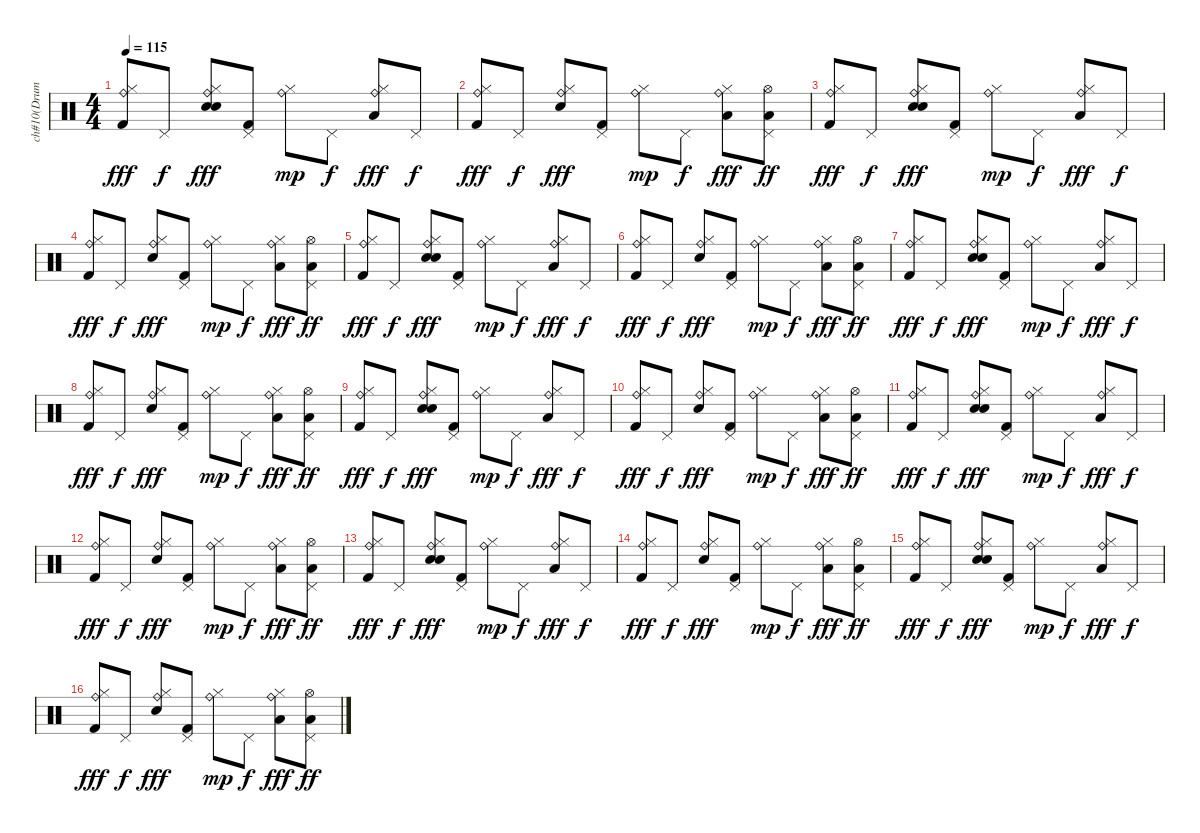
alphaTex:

\track ("ch#10(Drums)" "ch#10(Drum") {instrument percussion}
\staff {score}
\articulation defaults
\ts (4 4)
\tempo 115
\clef neutral
\ks c
("Ride (bell)" "Hi-Hat (closed)" "Kick (hit) 2").8{dy fff} "Pedal Hi-Hat (hit)".8{dy f} ("Electric Snare (hit)" "Ride (bell)" "Hi-Hat (closed)" "Electric Snare (hit)").8{dy fff} ("Kick (hit) 2" "Pedal Hi-Hat (hit)").8 ("Ride (bell)" "Hi-Hat (closed)").8{dy mp} "Pedal Hi-Hat (hit)".8{dy f} ("Ride (bell)" "Low Floor Tom (hit)" "Hi-Hat (closed)").8{dy fff} "Pedal Hi-Hat (hit)".8{dy f} |
("Ride (bell)" "Hi-Hat (closed)" "Kick (hit) 2").8{dy fff} "Pedal Hi-Hat (hit)".8{dy f} ("Ride (bell)" "Hi-Hat (closed)" "Electric Snare (hit)").8{dy fff} ("Pedal Hi-Hat (hit)" "Kick (hit) 2").8 ("Ride (bell)" "Hi-Hat (closed)").8{dy mp} "Pedal Hi-Hat (hit)".8{dy f} ("Ride (bell)" "Low Floor Tom (hit)" "Hi-Hat (closed)").8{dy fff} ("Hi-Hat (open)" "Low Floor Tom (hit)" "Pedal Hi-Hat (hit)").8{dy ff} |
("Ride (bell)" "Hi-Hat (closed)" "Kick (hit) 2").8{dy fff} "Pedal Hi-Hat (hit)".8{dy f} ("Electric Snare (hit)" "Ride (bell)" "Hi-Hat (closed)" "Electric Snare (hit)").8{dy fff} ("Kick (hit) 2" "Pedal Hi-Hat (hit)").8 ("Ride (bell)" "Hi-Hat (closed)").8{dy mp} "Pedal Hi-Hat (hit)".8{dy f} ("Ride (bell)" "Low Floor Tom (hit)" "Hi-Hat (closed)").8{dy fff} "Pedal Hi-Hat (hit)".8{dy f} |
("Ride (bell)" "Hi-Hat (closed)" "Kick (hit) 2").8{dy fff} "Pedal Hi-Hat (hit)".8{dy f} ("Ride (bell)" "Hi-Hat (closed)" "Electric Snare (hit)").8{dy fff} ("Pedal Hi-Hat (hit)" "Kick (hit) 2").8 ("Ride (bell)" "Hi-Hat (closed)").8{dy mp} "Pedal Hi-Hat (hit)".8{dy f} ("Ride (bell)" "Low Floor Tom (hit)" "Hi-Hat (closed)").8{dy fff} ("Hi-Hat (open)" "Low Floor Tom (hit)" "Pedal Hi-Hat (hit)").8{dy ff} |
("Ride (bell)" "Hi-Hat (closed)" "Kick (hit) 2").8{dy fff} "Pedal Hi-Hat (hit)".8{dy f} ("Electric Snare (hit)" "Ride (bell)" "Hi-Hat (closed)" "Electric Snare (hit)").8{dy fff} ("Kick (hit) 2" "Pedal Hi-Hat (hit)").8 ("Ride (bell)" "Hi-Hat (closed)").8{dy mp} "Pedal Hi-Hat (hit)".8{dy f} ("Ride (bell)" "Low Floor Tom (hit)" "Hi-Hat (closed)").8{dy fff} "Pedal Hi-Hat (hit)".8{dy f} |
("Ride (bell)" "Hi-Hat (closed)" "Kick (hit) 2").8{dy fff} "Pedal Hi-Hat (hit)".8{dy f} ("Ride (bell)" "Hi-Hat (closed)" "Electric Snare (hit)").8{dy fff} ("Pedal Hi-Hat (hit)" "Kick (hit) 2").8 ("Ride (bell)" "Hi-Hat (closed)").8{dy mp} "Pedal Hi-Hat (hit)".8{dy f} ("Ride (bell)" "Low Floor Tom (hit)" "Hi-Hat (closed)").8{dy fff} ("Hi-Hat (open)" "Low Floor Tom (hit)" "Pedal Hi-Hat (hit)").8{dy ff} |
("Ride (bell)" "Hi-Hat (closed)" "Kick (hit) 2").8{dy fff} "Pedal Hi-Hat (hit)".8{dy f} ("Electric Snare (hit)" "Ride (bell)" "Hi-Hat (closed)" "Electric Snare (hit)").8{dy fff} ("Kick (hit) 2" "Pedal Hi-Hat (hit)").8 ("Ride (bell)" "Hi-Hat (closed)").8{dy mp} "Pedal Hi-Hat (hit)".8{dy f} ("Ride (bell)" "Low Floor Tom (hit)" "Hi-Hat (closed)").8{dy fff} "Pedal Hi-Hat (hit)".8{dy f} |
("Ride (bell)" "Hi-Hat (closed)" "Kick (hit) 2").8{dy fff} "Pedal Hi-Hat (hit)".8{dy f} ("Ride (bell)" "Hi-Hat (closed)" "Electric Snare (hit)").8{dy fff} ("Pedal Hi-Hat (hit)" "Kick (hit) 2").8 ("Ride (bell)" "Hi-Hat (closed)").8{dy mp} "Pedal Hi-Hat (hit)".8{dy f} ("Ride (bell)" "Low Floor Tom (hit)" "Hi-Hat (closed)").8{dy fff} ("Hi-Hat (open)" "Low Floor Tom (hit)" "Pedal Hi-Hat (hit)").8{dy ff} |
("Ride (bell)" "Hi-Hat (closed)" "Kick (hit) 2").8{dy fff} "Pedal Hi-Hat (hit)".8{dy f} ("Electric Snare (hit)" "Ride (bell)" "Hi-Hat (closed)" "Electric Snare (hit)").8{dy fff} ("Kick (hit) 2" "Pedal Hi-Hat (hit)").8 ("Ride (bell)" "Hi-Hat (closed)").8{dy mp} "Pedal Hi-Hat (hit)".8{dy f} ("Ride (bell)" "Low Floor Tom (hit)" "Hi-Hat (closed)").8{dy fff} "Pedal Hi-Hat (hit)".8{dy f} |
("Ride (bell)" "Hi-Hat (closed)" "Kick (hit) 2").8{dy fff} "Pedal Hi-Hat (hit)".8{dy f} ("Ride (bell)" "Hi-Hat (closed)" "Electric Snare (hit)").8{dy fff} ("Pedal Hi-Hat (hit)" "Kick (hit) 2").8 ("Ride (bell)" "Hi-Hat (closed)").8{dy mp} "Pedal Hi-Hat (hit)".8{dy f} ("Ride (bell)" "Low Floor Tom (hit)" "Hi-Hat (closed)").8{dy fff} ("Hi-Hat (open)" "Low Floor Tom (hit)" "Pedal Hi-Hat (hit)").8{dy ff} |
("Ride (bell)" "Hi-Hat (closed)" "Kick (hit) 2").8{dy fff} "Pedal Hi-Hat (hit)".8{dy f} ("Electric Snare (hit)" "Ride (bell)" "Hi-Hat (closed)" "Electric Snare (hit)").8{dy fff} ("Kick (hit) 2" "Pedal Hi-Hat (hit)").8 ("Ride (bell)" "Hi-Hat (closed)").8{dy mp} "Pedal Hi-Hat (hit)".8{dy f} ("Ride (bell)" "Low Floor Tom (hit)" "Hi-Hat (closed)").8{dy fff} "Pedal Hi-Hat (hit)".8{dy f} |
("Ride (bell)" "Hi-Hat (closed)" "Kick (hit) 2").8{dy fff} "Pedal Hi-Hat (hit)".8{dy f} ("Ride (bell)" "Hi-Hat (closed)" "Electric Snare (hit)").8{dy fff} ("Pedal Hi-Hat (hit)" "Kick (hit) 2").8 ("Ride (bell)" "Hi-Hat (closed)").8{dy mp} "Pedal Hi-Hat (hit)".8{dy f} ("Ride (bell)" "Low Floor Tom (hit)" "Hi-Hat (closed)").8{dy fff} ("Hi-Hat (open)" "Low Floor Tom (hit)" "Pedal Hi-Hat (hit)").8{dy ff} |
("Ride (bell)" "Hi-Hat (closed)" "Kick (hit) 2").8{dy fff} "Pedal Hi-Hat (hit)".8{dy f} ("Electric Snare (hit)" "Ride (bell)" "Hi-Hat (closed)" "Electric Snare (hit)").8{dy fff} ("Kick (hit) 2" "Pedal Hi-Hat (hit)").8 ("Ride (bell)" "Hi-Hat (closed)").8{dy mp} "Pedal Hi-Hat (hit)".8{dy f} ("Ride (bell)" "Low Floor Tom (hit)" "Hi-Hat (closed)").8{dy fff} "Pedal Hi-Hat (hit)".8{dy f} |
("Ride (bell)" "Hi-Hat (closed)" "Kick (hit) 2").8{dy fff} "Pedal Hi-Hat (hit)".8{dy f} ("Ride (bell)" "Hi-Hat (closed)" "Electric Snare (hit)").8{dy fff} ("Pedal Hi-Hat (hit)" "Kick (hit) 2").8 ("Ride (bell)" "Hi-Hat (closed)").8{dy mp} "Pedal Hi-Hat (hit)".8{dy f} ("Ride (bell)" "Low Floor Tom (hit)" "Hi-Hat (closed)").8{dy fff} ("Hi-Hat (open)" "Low Floor Tom (hit)" "Pedal Hi-Hat (hit)").8{dy ff} |
("Ride (bell)" "Hi-Hat (closed)" "Kick (hit) 2").8{dy fff} "Pedal Hi-Hat (hit)".8{dy f} ("Electric Snare (hit)" "Ride (bell)" "Hi-Hat (closed)" "Electric Snare (hit)").8{dy fff} ("Kick (hit) 2" "Pedal Hi-Hat (hit)").8 ("Ride (bell)" "Hi-Hat (closed)").8{dy mp} "Pedal Hi-Hat (hit)".8{dy f} ("Ride (bell)" "Low Floor Tom (hit)" "Hi-Hat (closed)").8{dy fff} "Pedal Hi-Hat (hit)".8{dy f} |
("Ride (bell)" "Hi-Hat (closed)" "Kick (hit) 2").8{dy fff} "Pedal Hi-Hat (hit)".8{dy f} ("Ride (bell)" "Hi-Hat (closed)" "Electric Snare (hit)").8{dy fff} ("Pedal Hi-Hat (hit)" "Kick (hit) 2").8 ("Ride (bell)" "Hi-Hat (closed)").8{dy mp} "Pedal Hi-Hat (hit)".8{dy f} ("Ride (bell)" "Low Floor Tom (hit)" "Hi-Hat (closed)").8{dy fff} ("Hi-Hat (open)" "Low Floor Tom (hit)" "Pedal Hi-Hat (hit)").8{dy ff}
